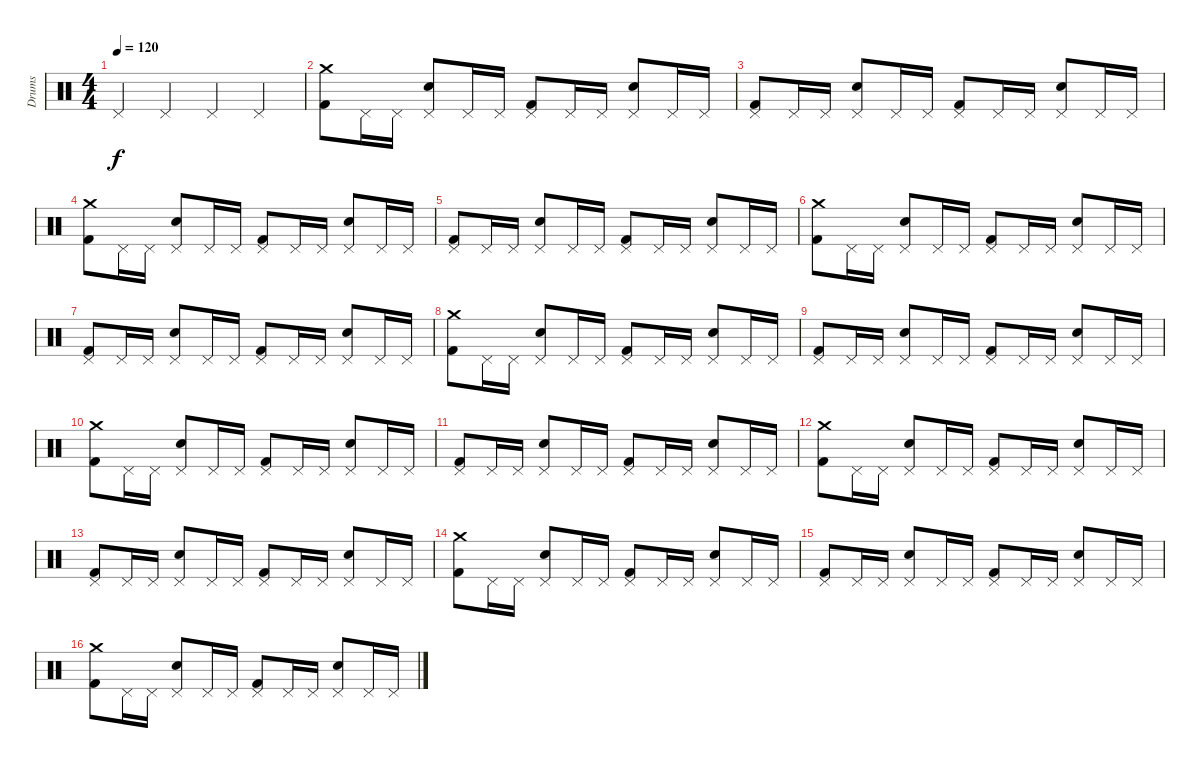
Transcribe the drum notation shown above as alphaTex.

\track ("Drums" "Drums") {instrument percussion}
\staff {score}
\articulation defaults
\ts (4 4)
\tempo 120
\clef neutral
\ks c "Pedal Hi-Hat (hit)".4{dy f} "Pedal Hi-Hat (hit)".4 "Pedal Hi-Hat (hit)".4 "Pedal Hi-Hat (hit)".4
|
("Kick (hit) 2" "Crash medium (hit)").8 "Pedal Hi-Hat (hit)".16 "Pedal Hi-Hat (hit)".16 ("Snare (hit) 2" "Pedal Hi-Hat (hit)").8 "Pedal Hi-Hat (hit)".16 "Pedal Hi-Hat (hit)".16 ("Kick (hit) 2" "Pedal Hi-Hat (hit)").8 "Pedal Hi-Hat (hit)".16 "Pedal Hi-Hat (hit)".16 ("Snare (hit) 2" "Pedal Hi-Hat (hit)").8 "Pedal Hi-Hat (hit)".16 "Pedal Hi-Hat (hit)".16 |
("Kick (hit) 2" "Pedal Hi-Hat (hit)").8 "Pedal Hi-Hat (hit)".16 "Pedal Hi-Hat (hit)".16 ("Snare (hit) 2" "Pedal Hi-Hat (hit)").8 "Pedal Hi-Hat (hit)".16 "Pedal Hi-Hat (hit)".16 ("Kick (hit) 2" "Pedal Hi-Hat (hit)").8 "Pedal Hi-Hat (hit)".16 "Pedal Hi-Hat (hit)".16 ("Snare (hit) 2" "Pedal Hi-Hat (hit)").8 "Pedal Hi-Hat (hit)".16 "Pedal Hi-Hat (hit)".16 |
("Kick (hit) 2" "Crash medium (hit)").8 "Pedal Hi-Hat (hit)".16 "Pedal Hi-Hat (hit)".16 ("Snare (hit) 2" "Pedal Hi-Hat (hit)").8 "Pedal Hi-Hat (hit)".16 "Pedal Hi-Hat (hit)".16 ("Kick (hit) 2" "Pedal Hi-Hat (hit)").8 "Pedal Hi-Hat (hit)".16 "Pedal Hi-Hat (hit)".16 ("Snare (hit) 2" "Pedal Hi-Hat (hit)").8 "Pedal Hi-Hat (hit)".16 "Pedal Hi-Hat (hit)".16 |
("Kick (hit) 2" "Pedal Hi-Hat (hit)").8 "Pedal Hi-Hat (hit)".16 "Pedal Hi-Hat (hit)".16 ("Snare (hit) 2" "Pedal Hi-Hat (hit)").8 "Pedal Hi-Hat (hit)".16 "Pedal Hi-Hat (hit)".16 ("Kick (hit) 2" "Pedal Hi-Hat (hit)").8 "Pedal Hi-Hat (hit)".16 "Pedal Hi-Hat (hit)".16 ("Snare (hit) 2" "Pedal Hi-Hat (hit)").8 "Pedal Hi-Hat (hit)".16 "Pedal Hi-Hat (hit)".16 |
("Kick (hit) 2" "Crash medium (hit)").8 "Pedal Hi-Hat (hit)".16 "Pedal Hi-Hat (hit)".16 ("Snare (hit) 2" "Pedal Hi-Hat (hit)").8 "Pedal Hi-Hat (hit)".16 "Pedal Hi-Hat (hit)".16 ("Kick (hit) 2" "Pedal Hi-Hat (hit)").8 "Pedal Hi-Hat (hit)".16 "Pedal Hi-Hat (hit)".16 ("Snare (hit) 2" "Pedal Hi-Hat (hit)").8 "Pedal Hi-Hat (hit)".16 "Pedal Hi-Hat (hit)".16 |
("Kick (hit) 2" "Pedal Hi-Hat (hit)").8 "Pedal Hi-Hat (hit)".16 "Pedal Hi-Hat (hit)".16 ("Snare (hit) 2" "Pedal Hi-Hat (hit)").8 "Pedal Hi-Hat (hit)".16 "Pedal Hi-Hat (hit)".16 ("Kick (hit) 2" "Pedal Hi-Hat (hit)").8 "Pedal Hi-Hat (hit)".16 "Pedal Hi-Hat (hit)".16 ("Snare (hit) 2" "Pedal Hi-Hat (hit)").8 "Pedal Hi-Hat (hit)".16 "Pedal Hi-Hat (hit)".16 |
("Kick (hit) 2" "Crash medium (hit)").8 "Pedal Hi-Hat (hit)".16 "Pedal Hi-Hat (hit)".16 ("Snare (hit) 2" "Pedal Hi-Hat (hit)").8 "Pedal Hi-Hat (hit)".16 "Pedal Hi-Hat (hit)".16 ("Kick (hit) 2" "Pedal Hi-Hat (hit)").8 "Pedal Hi-Hat (hit)".16 "Pedal Hi-Hat (hit)".16 ("Snare (hit) 2" "Pedal Hi-Hat (hit)").8 "Pedal Hi-Hat (hit)".16 "Pedal Hi-Hat (hit)".16 |
("Kick (hit) 2" "Pedal Hi-Hat (hit)").8 "Pedal Hi-Hat (hit)".16 "Pedal Hi-Hat (hit)".16 ("Snare (hit) 2" "Pedal Hi-Hat (hit)").8 "Pedal Hi-Hat (hit)".16 "Pedal Hi-Hat (hit)".16 ("Kick (hit) 2" "Pedal Hi-Hat (hit)").8 "Pedal Hi-Hat (hit)".16 "Pedal Hi-Hat (hit)".16 ("Snare (hit) 2" "Pedal Hi-Hat (hit)").8 "Pedal Hi-Hat (hit)".16 "Pedal Hi-Hat (hit)".16 |
("Kick (hit) 2" "Crash medium (hit)").8 "Pedal Hi-Hat (hit)".16 "Pedal Hi-Hat (hit)".16 ("Snare (hit) 2" "Pedal Hi-Hat (hit)").8 "Pedal Hi-Hat (hit)".16 "Pedal Hi-Hat (hit)".16 ("Kick (hit) 2" "Pedal Hi-Hat (hit)").8 "Pedal Hi-Hat (hit)".16 "Pedal Hi-Hat (hit)".16 ("Snare (hit) 2" "Pedal Hi-Hat (hit)").8 "Pedal Hi-Hat (hit)".16 "Pedal Hi-Hat (hit)".16 |
("Kick (hit) 2" "Pedal Hi-Hat (hit)").8 "Pedal Hi-Hat (hit)".16 "Pedal Hi-Hat (hit)".16 ("Snare (hit) 2" "Pedal Hi-Hat (hit)").8 "Pedal Hi-Hat (hit)".16 "Pedal Hi-Hat (hit)".16 ("Kick (hit) 2" "Pedal Hi-Hat (hit)").8 "Pedal Hi-Hat (hit)".16 "Pedal Hi-Hat (hit)".16 ("Snare (hit) 2" "Pedal Hi-Hat (hit)").8 "Pedal Hi-Hat (hit)".16 "Pedal Hi-Hat (hit)".16 |
("Kick (hit) 2" "Crash medium (hit)").8 "Pedal Hi-Hat (hit)".16 "Pedal Hi-Hat (hit)".16 ("Snare (hit) 2" "Pedal Hi-Hat (hit)").8 "Pedal Hi-Hat (hit)".16 "Pedal Hi-Hat (hit)".16 ("Kick (hit) 2" "Pedal Hi-Hat (hit)").8 "Pedal Hi-Hat (hit)".16 "Pedal Hi-Hat (hit)".16 ("Snare (hit) 2" "Pedal Hi-Hat (hit)").8 "Pedal Hi-Hat (hit)".16 "Pedal Hi-Hat (hit)".16 |
("Kick (hit) 2" "Pedal Hi-Hat (hit)").8 "Pedal Hi-Hat (hit)".16 "Pedal Hi-Hat (hit)".16 ("Snare (hit) 2" "Pedal Hi-Hat (hit)").8 "Pedal Hi-Hat (hit)".16 "Pedal Hi-Hat (hit)".16 ("Kick (hit) 2" "Pedal Hi-Hat (hit)").8 "Pedal Hi-Hat (hit)".16 "Pedal Hi-Hat (hit)".16 ("Snare (hit) 2" "Pedal Hi-Hat (hit)").8 "Pedal Hi-Hat (hit)".16 "Pedal Hi-Hat (hit)".16 |
("Kick (hit) 2" "Crash medium (hit)").8 "Pedal Hi-Hat (hit)".16 "Pedal Hi-Hat (hit)".16 ("Snare (hit) 2" "Pedal Hi-Hat (hit)").8 "Pedal Hi-Hat (hit)".16 "Pedal Hi-Hat (hit)".16 ("Kick (hit) 2" "Pedal Hi-Hat (hit)").8 "Pedal Hi-Hat (hit)".16 "Pedal Hi-Hat (hit)".16 ("Snare (hit) 2" "Pedal Hi-Hat (hit)").8 "Pedal Hi-Hat (hit)".16 "Pedal Hi-Hat (hit)".16 |
("Kick (hit) 2" "Pedal Hi-Hat (hit)").8 "Pedal Hi-Hat (hit)".16 "Pedal Hi-Hat (hit)".16 ("Snare (hit) 2" "Pedal Hi-Hat (hit)").8 "Pedal Hi-Hat (hit)".16 "Pedal Hi-Hat (hit)".16 ("Kick (hit) 2" "Pedal Hi-Hat (hit)").8 "Pedal Hi-Hat (hit)".16 "Pedal Hi-Hat (hit)".16 ("Snare (hit) 2" "Pedal Hi-Hat (hit)").8 "Pedal Hi-Hat (hit)".16 "Pedal Hi-Hat (hit)".16 |
("Kick (hit) 2" "Crash medium (hit)").8 "Pedal Hi-Hat (hit)".16 "Pedal Hi-Hat (hit)".16 ("Snare (hit) 2" "Pedal Hi-Hat (hit)").8 "Pedal Hi-Hat (hit)".16 "Pedal Hi-Hat (hit)".16 ("Kick (hit) 2" "Pedal Hi-Hat (hit)").8 "Pedal Hi-Hat (hit)".16 "Pedal Hi-Hat (hit)".16 ("Snare (hit) 2" "Pedal Hi-Hat (hit)").8 "Pedal Hi-Hat (hit)".16 "Pedal Hi-Hat (hit)".16
